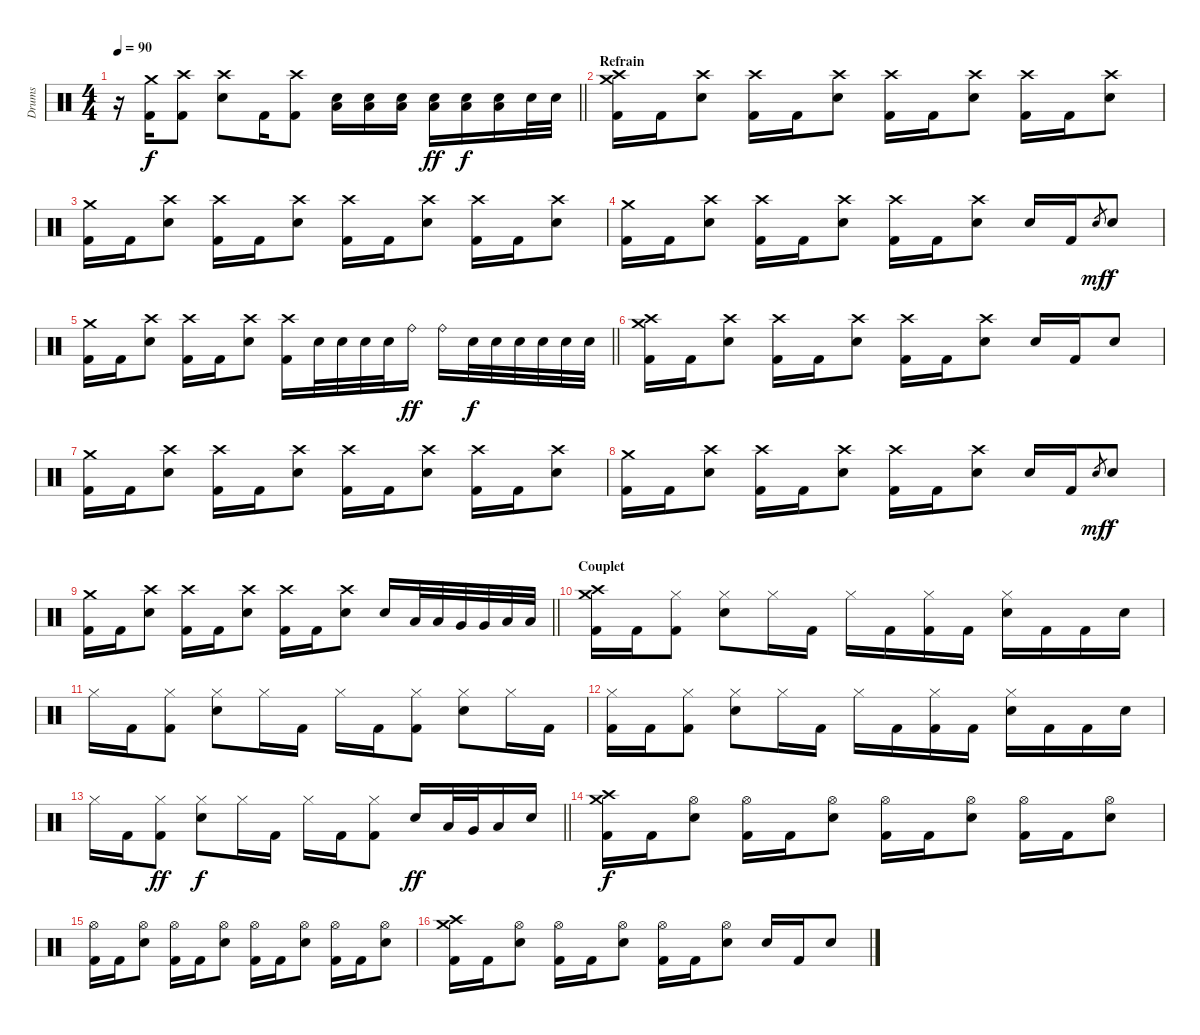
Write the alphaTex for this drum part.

\track ("Drums" "Drums") {instrument percussion}
\staff {score}
\articulation defaults
\ts (4 4)
\tempo 90
\clef neutral
\barLineRight lightlight
\ks c
r.16{dy f} ("Crash medium (hit)" "Kick (hit) 2").16 ("Crash high (hit)" "Kick (hit) 2").8 ("Crash high (hit)" "Electric Snare (hit)").8 "Kick (hit) 2".16 ("Crash high (hit)" "Kick (hit) 2").8 ("Low Floor Tom (hit)" "Electric Snare (hit)").16 ("Low Floor Tom (hit)" "Electric Snare (hit)").16 ("Low Floor Tom (hit)" "Electric Snare (hit)").16 ("Low Floor Tom (hit)" "Electric Snare (hit)").16{dy ff} ("Low Floor Tom (hit)" "Electric Snare (hit)").16{dy f} ("Low Floor Tom (hit)" "Electric Snare (hit)").16 "Electric Snare (hit)".32 "Electric Snare (hit)".32 |
\section ("" "Refrain")
("Crash high (hit)" "Crash medium (hit)" "Kick (hit) 2").16 "Kick (hit) 2".16 ("Crash high (hit)" "Electric Snare (hit)").8 ("Crash high (hit)" "Kick (hit) 2").16 "Kick (hit) 2".16 ("Crash high (hit)" "Electric Snare (hit)").8 ("Crash high (hit)" "Kick (hit) 2").16 "Kick (hit) 2".16 ("Crash high (hit)" "Electric Snare (hit)").8 ("Crash high (hit)" "Kick (hit) 2").16 "Kick (hit) 2".16 ("Crash high (hit)" "Electric Snare (hit)").8 |
("Crash medium (hit)" "Kick (hit) 2").16 "Kick (hit) 2".16 ("Crash high (hit)" "Electric Snare (hit)").8 ("Crash high (hit)" "Kick (hit) 2").16 "Kick (hit) 2".16 ("Crash high (hit)" "Electric Snare (hit)").8 ("Crash high (hit)" "Kick (hit) 2").16 "Kick (hit) 2".16 ("Crash high (hit)" "Electric Snare (hit)").8 ("Crash high (hit)" "Kick (hit) 2").16 "Kick (hit) 2".16 ("Crash high (hit)" "Electric Snare (hit)").8 |
("Crash medium (hit)" "Kick (hit) 2").16 "Kick (hit) 2".16 ("Crash high (hit)" "Electric Snare (hit)").8 ("Crash high (hit)" "Kick (hit) 2").16 "Kick (hit) 2".16 ("Crash high (hit)" "Electric Snare (hit)").8 ("Crash high (hit)" "Kick (hit) 2").16 "Kick (hit) 2".16 ("Crash high (hit)" "Electric Snare (hit)").8 "Electric Snare (hit)".16 "Kick (hit) 2".16 "Electric Snare (hit)".8{gr dy mf} "Electric Snare (hit)".8{dy f} |
\barLineRight lightlight
("Crash medium (hit)" "Kick (hit) 2").16 "Kick (hit) 2".16 ("Crash high (hit)" "Electric Snare (hit)").8 ("Crash high (hit)" "Kick (hit) 2").16 "Kick (hit) 2".16 ("Crash high (hit)" "Electric Snare (hit)").8 ("Crash high (hit)" "Kick (hit) 2").16 "Electric Snare (hit)".32 "Electric Snare (hit)".32 "Electric Snare (hit)".32 "Electric Snare (hit)".32 "Ride (bell)".16{dy ff} "Ride (bell)".16 "Electric Snare (hit)".32{dy f} "Electric Snare (hit)".32 "Electric Snare (hit)".32 "Electric Snare (hit)".32 "Electric Snare (hit)".32 "Electric Snare (hit)".32 |
("Crash high (hit)" "Crash medium (hit)" "Kick (hit) 2").16 "Kick (hit) 2".16 ("Crash high (hit)" "Electric Snare (hit)").8 ("Crash high (hit)" "Kick (hit) 2").16 "Kick (hit) 2".16 ("Crash high (hit)" "Electric Snare (hit)").8 ("Crash high (hit)" "Kick (hit) 2").16 "Kick (hit) 2".16 ("Crash high (hit)" "Electric Snare (hit)").8 "Electric Snare (hit)".16 "Kick (hit) 2".16 "Electric Snare (hit)".8 |
("Crash medium (hit)" "Kick (hit) 2").16 "Kick (hit) 2".16 ("Crash high (hit)" "Electric Snare (hit)").8 ("Crash high (hit)" "Kick (hit) 2").16 "Kick (hit) 2".16 ("Crash high (hit)" "Electric Snare (hit)").8 ("Crash high (hit)" "Kick (hit) 2").16 "Kick (hit) 2".16 ("Crash high (hit)" "Electric Snare (hit)").8 ("Crash high (hit)" "Kick (hit) 2").16 "Kick (hit) 2".16 ("Crash high (hit)" "Electric Snare (hit)").8 |
("Crash medium (hit)" "Kick (hit) 2").16 "Kick (hit) 2".16 ("Crash high (hit)" "Electric Snare (hit)").8 ("Crash high (hit)" "Kick (hit) 2").16 "Kick (hit) 2".16 ("Crash high (hit)" "Electric Snare (hit)").8 ("Crash high (hit)" "Kick (hit) 2").16 "Kick (hit) 2".16 ("Crash high (hit)" "Electric Snare (hit)").8 "Electric Snare (hit)".16 "Kick (hit) 2".16 "Electric Snare (hit)".8{gr dy mf} "Electric Snare (hit)".8{dy f} |
\barLineRight lightlight
("Crash medium (hit)" "Kick (hit) 2").16 "Kick (hit) 2".16 ("Crash high (hit)" "Electric Snare (hit)").8 ("Crash high (hit)" "Kick (hit) 2").16 "Kick (hit) 2".16 ("Crash high (hit)" "Electric Snare (hit)").8 ("Crash high (hit)" "Kick (hit) 2").16 "Kick (hit) 2".16 ("Crash high (hit)" "Electric Snare (hit)").8 "Electric Snare (hit)".16 "Low Tom (hit)".32 "Low Tom (hit)".32 "Very Low Tom (hit)".32 "Very Low Tom (hit)".32 "Low Floor Tom (hit)".32 "Low Floor Tom (hit)".32 |
\section ("" "Couplet")
("Crash medium (hit)" "Crash high (hit)" "Kick (hit) 2").16 "Kick (hit) 2".16 ("Hi-Hat (closed)" "Kick (hit) 2").8 ("Hi-Hat (closed)" "Electric Snare (hit)").8 "Hi-Hat (closed)".16 "Kick (hit) 2".16 "Hi-Hat (closed)".16 "Kick (hit) 2".16 ("Hi-Hat (closed)" "Kick (hit) 2").16 "Kick (hit) 2".16 ("Hi-Hat (closed)" "Electric Snare (hit)").16 "Kick (hit) 2".16 "Kick (hit) 2".16 "Electric Snare (hit)".16 |
"Hi-Hat (closed)".16 "Kick (hit) 2".16 ("Hi-Hat (closed)" "Kick (hit) 2").8 ("Hi-Hat (closed)" "Electric Snare (hit)").8 "Hi-Hat (closed)".16 "Kick (hit) 2".16 "Hi-Hat (closed)".16 "Kick (hit) 2".16 ("Hi-Hat (closed)" "Kick (hit) 2").8 ("Hi-Hat (closed)" "Electric Snare (hit)").8 "Hi-Hat (closed)".16 "Kick (hit) 2".16 |
("Hi-Hat (closed)" "Kick (hit) 2").16 "Kick (hit) 2".16 ("Hi-Hat (closed)" "Kick (hit) 2").8 ("Hi-Hat (closed)" "Electric Snare (hit)").8 "Hi-Hat (closed)".16 "Kick (hit) 2".16 "Hi-Hat (closed)".16 "Kick (hit) 2".16 ("Hi-Hat (closed)" "Kick (hit) 2").16 "Kick (hit) 2".16 ("Hi-Hat (closed)" "Electric Snare (hit)").16 "Kick (hit) 2".16 "Kick (hit) 2".16 "Electric Snare (hit)".16 |
\barLineRight lightlight "Hi-Hat (closed)".16 "Kick (hit) 2".16
("Hi-Hat (closed)" "Kick (hit) 2").8{dy ff} ("Hi-Hat (closed)" "Electric Snare (hit)").8{dy f} "Hi-Hat (closed)".16 "Kick (hit) 2".16 "Hi-Hat (closed)".16 "Kick (hit) 2".16 ("Hi-Hat (closed)" "Kick (hit) 2").8 "Electric Snare (hit)".16{dy ff} "Low Tom (hit)".32 "Very Low Tom (hit)".32 "Low Floor Tom (hit)".16 "Electric Snare (hit)".16 |
("Crash medium (hit)" "Crash high (hit)" "Kick (hit) 2").16{dy f} "Kick (hit) 2".16 ("Hi-Hat (open)" "Electric Snare (hit)").8 ("Hi-Hat (open)" "Kick (hit) 2").16 "Kick (hit) 2".16 ("Hi-Hat (open)" "Electric Snare (hit)").8 ("Hi-Hat (open)" "Kick (hit) 2").16 "Kick (hit) 2".16 ("Hi-Hat (open)" "Electric Snare (hit)").8 ("Hi-Hat (open)" "Kick (hit) 2").16 "Kick (hit) 2".16 ("Hi-Hat (open)" "Electric Snare (hit)").8 |
("Hi-Hat (open)" "Kick (hit) 2").16 "Kick (hit) 2".16 ("Hi-Hat (open)" "Electric Snare (hit)").8 ("Hi-Hat (open)" "Kick (hit) 2").16 "Kick (hit) 2".16 ("Hi-Hat (open)" "Electric Snare (hit)").8 ("Hi-Hat (open)" "Kick (hit) 2").16 "Kick (hit) 2".16 ("Hi-Hat (open)" "Electric Snare (hit)").8 ("Hi-Hat (open)" "Kick (hit) 2").16 "Kick (hit) 2".16 ("Hi-Hat (open)" "Electric Snare (hit)").8 |
("Crash medium (hit)" "Crash high (hit)" "Kick (hit) 2").16 "Kick (hit) 2".16 ("Hi-Hat (open)" "Electric Snare (hit)").8 ("Hi-Hat (open)" "Kick (hit) 2").16 "Kick (hit) 2".16 ("Hi-Hat (open)" "Electric Snare (hit)").8 ("Hi-Hat (open)" "Kick (hit) 2").16 "Kick (hit) 2".16 ("Hi-Hat (open)" "Electric Snare (hit)").8 "Electric Snare (hit)".16 "Kick (hit) 2".16 "Electric Snare (hit)".8
